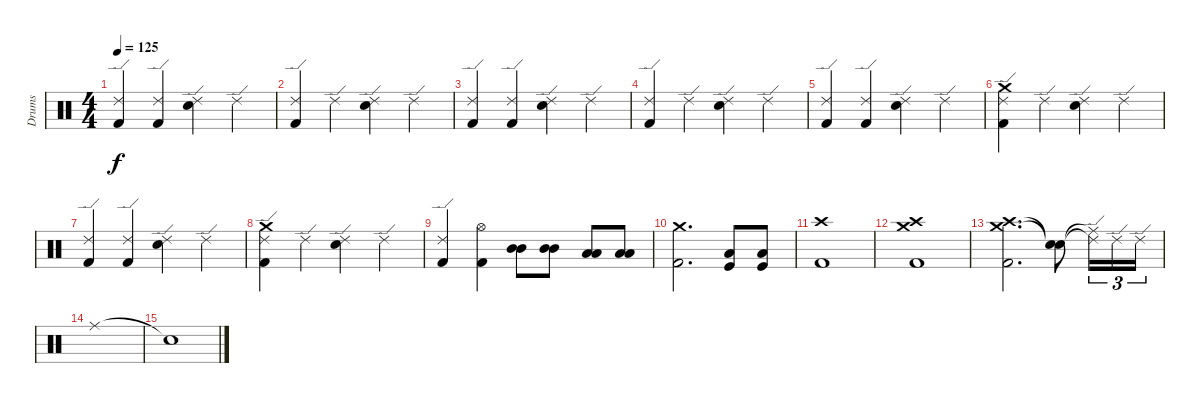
\track ("Drums" "Drums") {instrument percussion}
\staff {score}
\articulation defaults
\ts (4 4)
\tempo 125
\clef neutral
\ks c
("Ride (edge) 2" "Kick (hit) 2").4{dy f} ("Ride (edge) 2" "Kick (hit) 2").4 ("Ride (edge) 2" "Snare (hit) 2").4 "Ride (edge) 2".4 |
("Ride (edge) 2" "Kick (hit) 2").4 "Ride (edge) 2".4 ("Ride (edge) 2" "Snare (hit) 2").4 "Ride (edge) 2".4 |
("Ride (edge) 2" "Kick (hit) 2").4 ("Ride (edge) 2" "Kick (hit) 2").4 ("Ride (edge) 2" "Snare (hit) 2").4 "Ride (edge) 2".4 |
("Ride (edge) 2" "Kick (hit) 2").4 "Ride (edge) 2".4 ("Ride (edge) 2" "Snare (hit) 2").4 "Ride (edge) 2".4 |
("Ride (edge) 2" "Kick (hit) 2").4 ("Ride (edge) 2" "Kick (hit) 2").4 ("Ride (edge) 2" "Snare (hit) 2").4 "Ride (edge) 2".4 |
("Crash medium (hit)" "Ride (edge) 2" "Kick (hit) 2").4 "Ride (edge) 2".4 ("Ride (edge) 2" "Snare (hit) 2").4 "Ride (edge) 2".4 |
("Ride (edge) 2" "Kick (hit) 2").4 ("Ride (edge) 2" "Kick (hit) 2").4 ("Ride (edge) 2" "Snare (hit) 2").4 "Ride (edge) 2".4 |
("Crash medium (hit)" "Ride (edge) 2" "Kick (hit) 2").4 "Ride (edge) 2".4 ("Ride (edge) 2" "Snare (hit) 2").4 "Ride (edge) 2".4 |
("Ride (edge) 2" "Kick (hit) 2").4 ("Hi-Hat (open)" "Kick (hit) 2").4 ("Mid Tom (hit)" "Mid Tom (hit)").8 ("Mid Tom (hit)" "Mid Tom (hit)").8 ("Low Tom (hit)" "Low Tom (hit)").8 ("Low Tom (hit)" "Low Tom (hit)").8 |
("Crash medium (hit)" "Kick (hit) 2").2{d} ("Low Tom (hit)" "Kick (hit)").8 ("Low Tom (hit)" "Kick (hit)").8 |
("Crash high (hit)" "Kick (hit) 2").1 |
("Crash high (hit)" "Crash medium (hit)" "Kick (hit) 2").1 |
("Crash high (hit)" "Crash medium (hit)" "Kick (hit) 2").2{d} ("Snare (hit)"{t} "Snare (hit)"{t}).8 ("Ride (edge) 2"{t} "Ride (middle)"{t}).16{tu (3 2)} "Ride (edge) 2".16{tu (3 2)} "Ride (edge) 2".16{tu (3 2)} |
"Ride (middle)".1 |
"Snare (hit)"{t}.1
